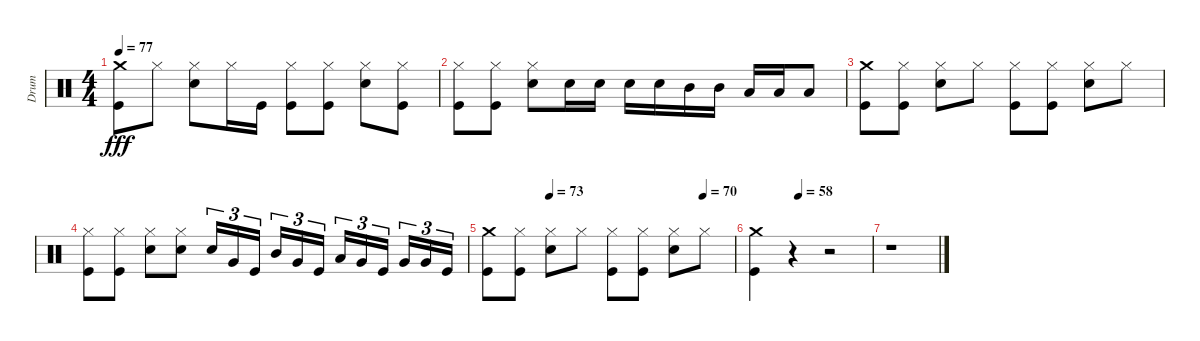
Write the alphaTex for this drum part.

\track ("Drum" "Drum") {instrument percussion}
\staff {score}
\articulation defaults
\ts (4 4)
\tempo 77
\clef neutral
\ks c
("Crash medium (hit)" "Kick (hit)").8{dy fff} "Hi-Hat (closed)".8 ("Hi-Hat (closed)" "Snare (hit) 2").8 "Hi-Hat (closed)".16 "Kick (hit)".16 ("Hi-Hat (closed)" "Kick (hit)").8 ("Hi-Hat (closed)" "Kick (hit)").8 ("Hi-Hat (closed)" "Snare (hit) 2").8 ("Hi-Hat (closed)" "Kick (hit)").8 |
("Hi-Hat (closed)" "Kick (hit)").8 ("Hi-Hat (closed)" "Kick (hit)").8 ("Hi-Hat (closed)" "Snare (hit) 2").8 "Snare (hit) 2".16 "Snare (hit) 2".16 "Snare (hit) 2".16 "Snare (hit) 2".16 "Mid Tom (hit)".16 "Mid Tom (hit)".16 "Low Tom (hit)".16 "Low Tom (hit)".16 "Low Tom (hit)".8 |
("Crash medium (hit)" "Kick (hit)").8 ("Hi-Hat (closed)" "Kick (hit)").8 ("Hi-Hat (closed)" "Snare (hit) 2").8 "Hi-Hat (closed)".8 ("Hi-Hat (closed)" "Kick (hit)").8 ("Hi-Hat (closed)" "Kick (hit)").8 ("Hi-Hat (closed)" "Snare (hit) 2").8 "Hi-Hat (closed)".8 |
("Hi-Hat (closed)" "Kick (hit)").8 ("Hi-Hat (closed)" "Kick (hit)").8 ("Hi-Hat (closed)" "Snare (hit) 2").8 ("Hi-Hat (closed)" "Snare (hit) 2").8 "Snare (hit) 2".16{tu (3 2)} "Very Low Tom (hit)".16{tu (3 2)} "Kick (hit)".16{tu (3 2)} "Mid Tom (hit)".16{tu (3 2)} "Very Low Tom (hit)".16{tu (3 2)} "Kick (hit)".16{tu (3 2)} "Low Tom (hit)".16{tu (3 2)} "Very Low Tom (hit)".16{tu (3 2)} "Kick (hit)".16{tu (3 2)} "Very Low Tom (hit)".16{tu (3 2)} "Very Low Tom (hit)".16{tu (3 2)} "Kick (hit)".16{tu (3 2)} |
\tempo (73 0.25)
\tempo (70 0.875)
("Crash medium (hit)" "Kick (hit)").8 ("Hi-Hat (closed)" "Kick (hit)").8 ("Hi-Hat (closed)" "Snare (hit) 2").8 "Hi-Hat (closed)".8 ("Hi-Hat (closed)" "Kick (hit)").8 ("Hi-Hat (closed)" "Kick (hit)").8 ("Hi-Hat (closed)" "Snare (hit) 2").8 "Hi-Hat (closed)".8 |
\tempo (58 0.375)
("Crash medium (hit)" "Kick (hit)").4 r.4 r.2 |
r.1
